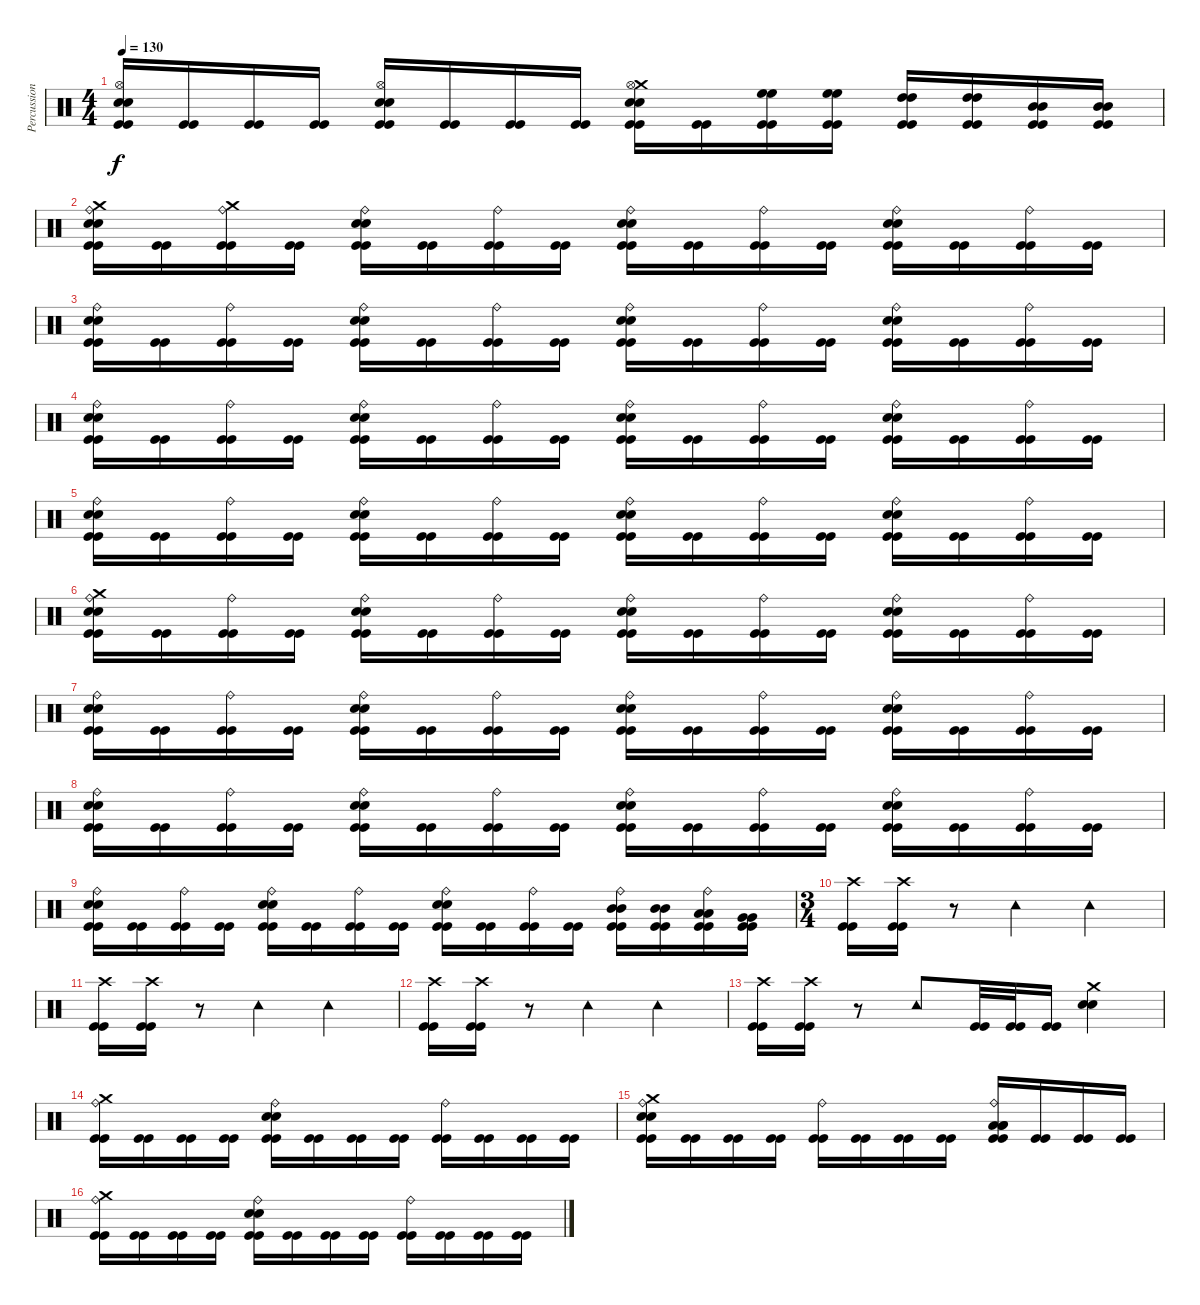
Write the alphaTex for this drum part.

\track ("Percussion" "Percussion") {instrument percussion}
\staff {score}
\articulation defaults
\ts (4 4)
\tempo 130
\clef neutral
\ks c
("Snare (hit) 2" "Snare (hit) 2" "Hi-Hat (open)" "Kick (hit)" "Kick (hit)").16{dy f} ("Kick (hit)" "Kick (hit)").16 ("Kick (hit)" "Kick (hit)").16 ("Kick (hit)" "Kick (hit)").16 ("Snare (hit) 2" "Snare (hit) 2" "Hi-Hat (open)" "Kick (hit)" "Kick (hit)").16 ("Kick (hit)" "Kick (hit)").16 ("Kick (hit)" "Kick (hit)").16 ("Kick (hit)" "Kick (hit)").16 ("Crash medium (hit)" "Snare (hit) 2" "Snare (hit) 2" "Hi-Hat (open)" "Kick (hit)" "Kick (hit)").16 ("Kick (hit)" "Kick (hit)").16 ("High Floor Tom (hit)" "High Floor Tom (hit)" "Kick (hit)" "Kick (hit)").16 ("High Floor Tom (hit)" "High Floor Tom (hit)" "Kick (hit)" "Kick (hit)").16 ("High Tom (hit)" "High Tom (hit)" "Kick (hit)" "Kick (hit)").16 ("High Tom (hit)" "High Tom (hit)" "Kick (hit)" "Kick (hit)").16 ("Mid Tom (hit)" "Mid Tom (hit)" "Kick (hit)" "Kick (hit)").16 ("Mid Tom (hit)" "Mid Tom (hit)" "Kick (hit)" "Kick (hit)").16 |
("Crash medium (hit)" "Snare (hit) 2" "Snare (hit) 2" "Ride (bell)" "Kick (hit)" "Kick (hit)").16 ("Kick (hit)" "Kick (hit)").16 ("Crash medium (hit)" "Ride (bell)" "Kick (hit)" "Kick (hit)").16 ("Kick (hit)" "Kick (hit)").16 ("Snare (hit) 2" "Snare (hit) 2" "Ride (bell)" "Kick (hit)" "Kick (hit)").16 ("Kick (hit)" "Kick (hit)").16 ("Ride (bell)" "Kick (hit)" "Kick (hit)").16 ("Kick (hit)" "Kick (hit)").16 ("Snare (hit) 2" "Snare (hit) 2" "Ride (bell)" "Kick (hit)" "Kick (hit)").16 ("Kick (hit)" "Kick (hit)").16 ("Ride (bell)" "Kick (hit)" "Kick (hit)").16 ("Kick (hit)" "Kick (hit)").16 ("Snare (hit) 2" "Snare (hit) 2" "Ride (bell)" "Kick (hit)" "Kick (hit)").16 ("Kick (hit)" "Kick (hit)").16 ("Ride (bell)" "Kick (hit)" "Kick (hit)").16 ("Kick (hit)" "Kick (hit)").16 |
("Snare (hit) 2" "Snare (hit) 2" "Ride (bell)" "Kick (hit)" "Kick (hit)").16 ("Kick (hit)" "Kick (hit)").16 ("Ride (bell)" "Kick (hit)" "Kick (hit)").16 ("Kick (hit)" "Kick (hit)").16 ("Snare (hit) 2" "Snare (hit) 2" "Ride (bell)" "Kick (hit)" "Kick (hit)").16 ("Kick (hit)" "Kick (hit)").16 ("Ride (bell)" "Kick (hit)" "Kick (hit)").16 ("Kick (hit)" "Kick (hit)").16 ("Snare (hit) 2" "Snare (hit) 2" "Ride (bell)" "Kick (hit)" "Kick (hit)").16 ("Kick (hit)" "Kick (hit)").16 ("Ride (bell)" "Kick (hit)" "Kick (hit)").16 ("Kick (hit)" "Kick (hit)").16 ("Snare (hit) 2" "Snare (hit) 2" "Ride (bell)" "Kick (hit)" "Kick (hit)").16 ("Kick (hit)" "Kick (hit)").16 ("Ride (bell)" "Kick (hit)" "Kick (hit)").16 ("Kick (hit)" "Kick (hit)").16 |
("Snare (hit) 2" "Snare (hit) 2" "Ride (bell)" "Kick (hit)" "Kick (hit)").16 ("Kick (hit)" "Kick (hit)").16 ("Ride (bell)" "Kick (hit)" "Kick (hit)").16 ("Kick (hit)" "Kick (hit)").16 ("Snare (hit) 2" "Snare (hit) 2" "Ride (bell)" "Kick (hit)" "Kick (hit)").16 ("Kick (hit)" "Kick (hit)").16 ("Ride (bell)" "Kick (hit)" "Kick (hit)").16 ("Kick (hit)" "Kick (hit)").16 ("Snare (hit) 2" "Snare (hit) 2" "Ride (bell)" "Kick (hit)" "Kick (hit)").16 ("Kick (hit)" "Kick (hit)").16 ("Ride (bell)" "Kick (hit)" "Kick (hit)").16 ("Kick (hit)" "Kick (hit)").16 ("Snare (hit) 2" "Snare (hit) 2" "Ride (bell)" "Kick (hit)" "Kick (hit)").16 ("Kick (hit)" "Kick (hit)").16 ("Ride (bell)" "Kick (hit)" "Kick (hit)").16 ("Kick (hit)" "Kick (hit)").16 |
("Snare (hit) 2" "Snare (hit) 2" "Ride (bell)" "Kick (hit)" "Kick (hit)").16 ("Kick (hit)" "Kick (hit)").16 ("Ride (bell)" "Kick (hit)" "Kick (hit)").16 ("Kick (hit)" "Kick (hit)").16 ("Snare (hit) 2" "Snare (hit) 2" "Ride (bell)" "Kick (hit)" "Kick (hit)").16 ("Kick (hit)" "Kick (hit)").16 ("Ride (bell)" "Kick (hit)" "Kick (hit)").16 ("Kick (hit)" "Kick (hit)").16 ("Snare (hit) 2" "Snare (hit) 2" "Ride (bell)" "Kick (hit)" "Kick (hit)").16 ("Kick (hit)" "Kick (hit)").16 ("Ride (bell)" "Kick (hit)" "Kick (hit)").16 ("Kick (hit)" "Kick (hit)").16 ("Snare (hit) 2" "Snare (hit) 2" "Ride (bell)" "Kick (hit)" "Kick (hit)").16 ("Kick (hit)" "Kick (hit)").16 ("Ride (bell)" "Kick (hit)" "Kick (hit)").16 ("Kick (hit)" "Kick (hit)").16 |
("Crash medium (hit)" "Snare (hit) 2" "Snare (hit) 2" "Ride (bell)" "Kick (hit)" "Kick (hit)").16 ("Kick (hit)" "Kick (hit)").16 ("Ride (bell)" "Kick (hit)" "Kick (hit)").16 ("Kick (hit)" "Kick (hit)").16 ("Snare (hit) 2" "Snare (hit) 2" "Ride (bell)" "Kick (hit)" "Kick (hit)").16 ("Kick (hit)" "Kick (hit)").16 ("Ride (bell)" "Kick (hit)" "Kick (hit)").16 ("Kick (hit)" "Kick (hit)").16 ("Snare (hit) 2" "Snare (hit) 2" "Ride (bell)" "Kick (hit)" "Kick (hit)").16 ("Kick (hit)" "Kick (hit)").16 ("Ride (bell)" "Kick (hit)" "Kick (hit)").16 ("Kick (hit)" "Kick (hit)").16 ("Snare (hit) 2" "Snare (hit) 2" "Ride (bell)" "Kick (hit)" "Kick (hit)").16 ("Kick (hit)" "Kick (hit)").16 ("Ride (bell)" "Kick (hit)" "Kick (hit)").16 ("Kick (hit)" "Kick (hit)").16 |
("Snare (hit) 2" "Snare (hit) 2" "Ride (bell)" "Kick (hit)" "Kick (hit)").16 ("Kick (hit)" "Kick (hit)").16 ("Ride (bell)" "Kick (hit)" "Kick (hit)").16 ("Kick (hit)" "Kick (hit)").16 ("Snare (hit) 2" "Snare (hit) 2" "Ride (bell)" "Kick (hit)" "Kick (hit)").16 ("Kick (hit)" "Kick (hit)").16 ("Ride (bell)" "Kick (hit)" "Kick (hit)").16 ("Kick (hit)" "Kick (hit)").16 ("Snare (hit) 2" "Snare (hit) 2" "Ride (bell)" "Kick (hit)" "Kick (hit)").16 ("Kick (hit)" "Kick (hit)").16 ("Ride (bell)" "Kick (hit)" "Kick (hit)").16 ("Kick (hit)" "Kick (hit)").16 ("Snare (hit) 2" "Snare (hit) 2" "Ride (bell)" "Kick (hit)" "Kick (hit)").16 ("Kick (hit)" "Kick (hit)").16 ("Ride (bell)" "Kick (hit)" "Kick (hit)").16 ("Kick (hit)" "Kick (hit)").16 |
("Snare (hit) 2" "Snare (hit) 2" "Ride (bell)" "Kick (hit)" "Kick (hit)").16 ("Kick (hit)" "Kick (hit)").16 ("Ride (bell)" "Kick (hit)" "Kick (hit)").16 ("Kick (hit)" "Kick (hit)").16 ("Snare (hit) 2" "Snare (hit) 2" "Ride (bell)" "Kick (hit)" "Kick (hit)").16 ("Kick (hit)" "Kick (hit)").16 ("Ride (bell)" "Kick (hit)" "Kick (hit)").16 ("Kick (hit)" "Kick (hit)").16 ("Snare (hit) 2" "Snare (hit) 2" "Ride (bell)" "Kick (hit)" "Kick (hit)").16 ("Kick (hit)" "Kick (hit)").16 ("Ride (bell)" "Kick (hit)" "Kick (hit)").16 ("Kick (hit)" "Kick (hit)").16 ("Snare (hit) 2" "Snare (hit) 2" "Ride (bell)" "Kick (hit)" "Kick (hit)").16 ("Kick (hit)" "Kick (hit)").16 ("Ride (bell)" "Kick (hit)" "Kick (hit)").16 ("Kick (hit)" "Kick (hit)").16 |
("Snare (hit) 2" "Snare (hit) 2" "Ride (bell)" "Kick (hit)" "Kick (hit)").16 ("Kick (hit)" "Kick (hit)").16 ("Ride (bell)" "Kick (hit)" "Kick (hit)").16 ("Kick (hit)" "Kick (hit)").16 ("Snare (hit) 2" "Snare (hit) 2" "Ride (bell)" "Kick (hit)" "Kick (hit)").16 ("Kick (hit)" "Kick (hit)").16 ("Ride (bell)" "Kick (hit)" "Kick (hit)").16 ("Kick (hit)" "Kick (hit)").16 ("Snare (hit) 2" "Snare (hit) 2" "Ride (bell)" "Kick (hit)" "Kick (hit)").16 ("Kick (hit)" "Kick (hit)").16 ("Ride (bell)" "Kick (hit)" "Kick (hit)").16 ("Kick (hit)" "Kick (hit)").16 ("Mid Tom (hit)" "Mid Tom (hit)" "Ride (bell)" "Kick (hit)" "Kick (hit)").16 ("Mid Tom (hit)" "Mid Tom (hit)" "Kick (hit)" "Kick (hit)").16 ("Low Tom (hit)" "Low Tom (hit)" "Ride (bell)" "Kick (hit)" "Kick (hit)").16 ("Very Low Tom (hit)" "Very Low Tom (hit)" "Kick (hit)" "Kick (hit)").16 |
\ts (3 4)
("Crash high (hit)" "Kick (hit)" "Kick (hit)").16 ("Crash high (hit)" "Kick (hit)" "Kick (hit)").16 r.8 "Tambourine (hit)".4 "Tambourine (hit)".4 |
("Crash high (hit)" "Kick (hit)" "Kick (hit)").16 ("Crash high (hit)" "Kick (hit)" "Kick (hit)").16 r.8 "Tambourine (hit)".4 "Tambourine (hit)".4 |
("Crash high (hit)" "Kick (hit)" "Kick (hit)").16 ("Crash high (hit)" "Kick (hit)" "Kick (hit)").16 r.8 "Tambourine (hit)".4 "Tambourine (hit)".4 |
("Crash high (hit)" "Kick (hit)" "Kick (hit)").16 ("Crash high (hit)" "Kick (hit)" "Kick (hit)").16 r.8 "Tambourine (hit)".8 ("Kick (hit)" "Kick (hit)").32 ("Kick (hit)" "Kick (hit)").32 ("Kick (hit)" "Kick (hit)").16 ("Crash medium (hit)" "Snare (hit) 2" "Snare (hit) 2").4 |
("Crash medium (hit)" "Ride (bell)" "Kick (hit)" "Kick (hit)").16 ("Kick (hit)" "Kick (hit)").16 ("Kick (hit)" "Kick (hit)").16 ("Kick (hit)" "Kick (hit)").16 ("Snare (hit) 2" "Snare (hit) 2" "Ride (bell)" "Kick (hit)" "Kick (hit)").16 ("Kick (hit)" "Kick (hit)").16 ("Kick (hit)" "Kick (hit)").16 ("Kick (hit)" "Kick (hit)").16 ("Ride (bell)" "Kick (hit)" "Kick (hit)").16 ("Kick (hit)" "Kick (hit)").16 ("Kick (hit)" "Kick (hit)").16 ("Kick (hit)" "Kick (hit)").16 |
("Crash medium (hit)" "Snare (hit) 2" "Snare (hit) 2" "Ride (bell)" "Kick (hit)" "Kick (hit)").16 ("Kick (hit)" "Kick (hit)").16 ("Kick (hit)" "Kick (hit)").16 ("Kick (hit)" "Kick (hit)").16 ("Ride (bell)" "Kick (hit)" "Kick (hit)").16 ("Kick (hit)" "Kick (hit)").16 ("Kick (hit)" "Kick (hit)").16 ("Kick (hit)" "Kick (hit)").16 ("Low Floor Tom (hit)" "Low Tom (hit)" "Low Tom (hit)" "Ride (bell)" "Kick (hit)" "Kick (hit)").16 ("Kick (hit)" "Kick (hit)").16 ("Kick (hit)" "Kick (hit)").16 ("Kick (hit)" "Kick (hit)").16 |
("Crash medium (hit)" "Ride (bell)" "Kick (hit)" "Kick (hit)").16 ("Kick (hit)" "Kick (hit)").16 ("Kick (hit)" "Kick (hit)").16 ("Kick (hit)" "Kick (hit)").16 ("Snare (hit) 2" "Snare (hit) 2" "Ride (bell)" "Kick (hit)" "Kick (hit)").16 ("Kick (hit)" "Kick (hit)").16 ("Kick (hit)" "Kick (hit)").16 ("Kick (hit)" "Kick (hit)").16 ("Ride (bell)" "Kick (hit)" "Kick (hit)").16 ("Kick (hit)" "Kick (hit)").16 ("Kick (hit)" "Kick (hit)").16 ("Kick (hit)" "Kick (hit)").16
